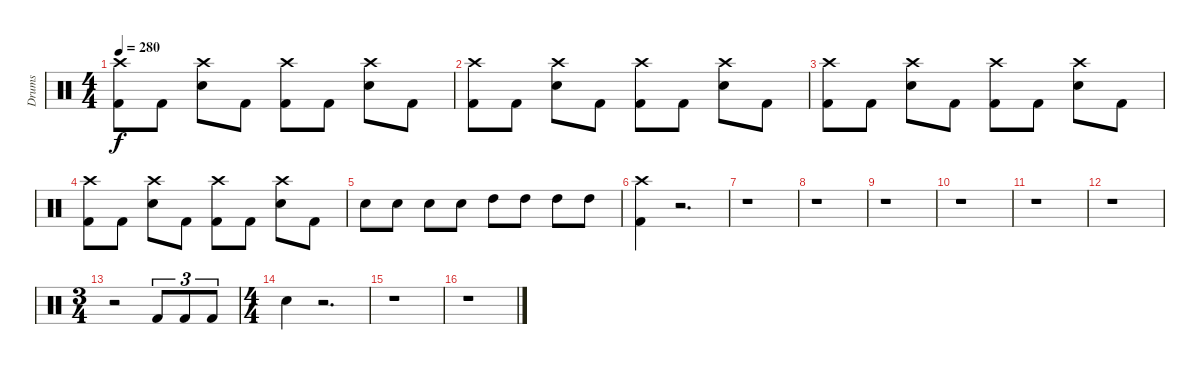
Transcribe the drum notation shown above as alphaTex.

\track ("Drums" "Drums") {instrument percussion}
\staff {score}
\articulation defaults
\ts (4 4)
\tempo 280
\clef neutral
\ks c
("Crash high (hit)" "Kick (hit) 2").8{dy f} "Kick (hit) 2".8 ("Crash high (hit)" "Snare (hit) 2").8 "Kick (hit) 2".8 ("Crash high (hit)" "Kick (hit) 2").8 "Kick (hit) 2".8 ("Crash high (hit)" "Snare (hit) 2").8 "Kick (hit) 2".8 |
("Crash high (hit)" "Kick (hit) 2").8 "Kick (hit) 2".8 ("Crash high (hit)" "Snare (hit) 2").8 "Kick (hit) 2".8 ("Crash high (hit)" "Kick (hit) 2").8 "Kick (hit) 2".8 ("Crash high (hit)" "Snare (hit) 2").8 "Kick (hit) 2".8 |
("Crash high (hit)" "Kick (hit) 2").8 "Kick (hit) 2".8 ("Crash high (hit)" "Snare (hit) 2").8 "Kick (hit) 2".8 ("Crash high (hit)" "Kick (hit) 2").8 "Kick (hit) 2".8 ("Crash high (hit)" "Snare (hit) 2").8 "Kick (hit) 2".8 |
("Crash high (hit)" "Kick (hit) 2").8 "Kick (hit) 2".8 ("Crash high (hit)" "Snare (hit) 2").8 "Kick (hit) 2".8 ("Crash high (hit)" "Kick (hit) 2").8 "Kick (hit) 2".8 ("Crash high (hit)" "Snare (hit) 2").8 "Kick (hit) 2".8 |
"Snare (hit) 2".8 "Snare (hit) 2".8 "Snare (hit) 2".8 "Snare (hit) 2".8 "High Tom (hit)".8 "High Tom (hit)".8 "High Tom (hit)".8 "High Tom (hit)".8 |
("Kick (hit) 2" "Crash high (hit)").4 r.2{d} |
r.1 |
r.1 |
r.1 |
r.1 |
r.1 |
r.1 |
\ts (3 4)
r.2 "Kick (hit) 2".8{tu (3 2)} "Kick (hit) 2".8{tu (3 2)} "Kick (hit) 2".8{tu (3 2)} |
\ts (4 4)
"Snare (hit) 2".4 r.2{d} |
r.1 |
r.1
